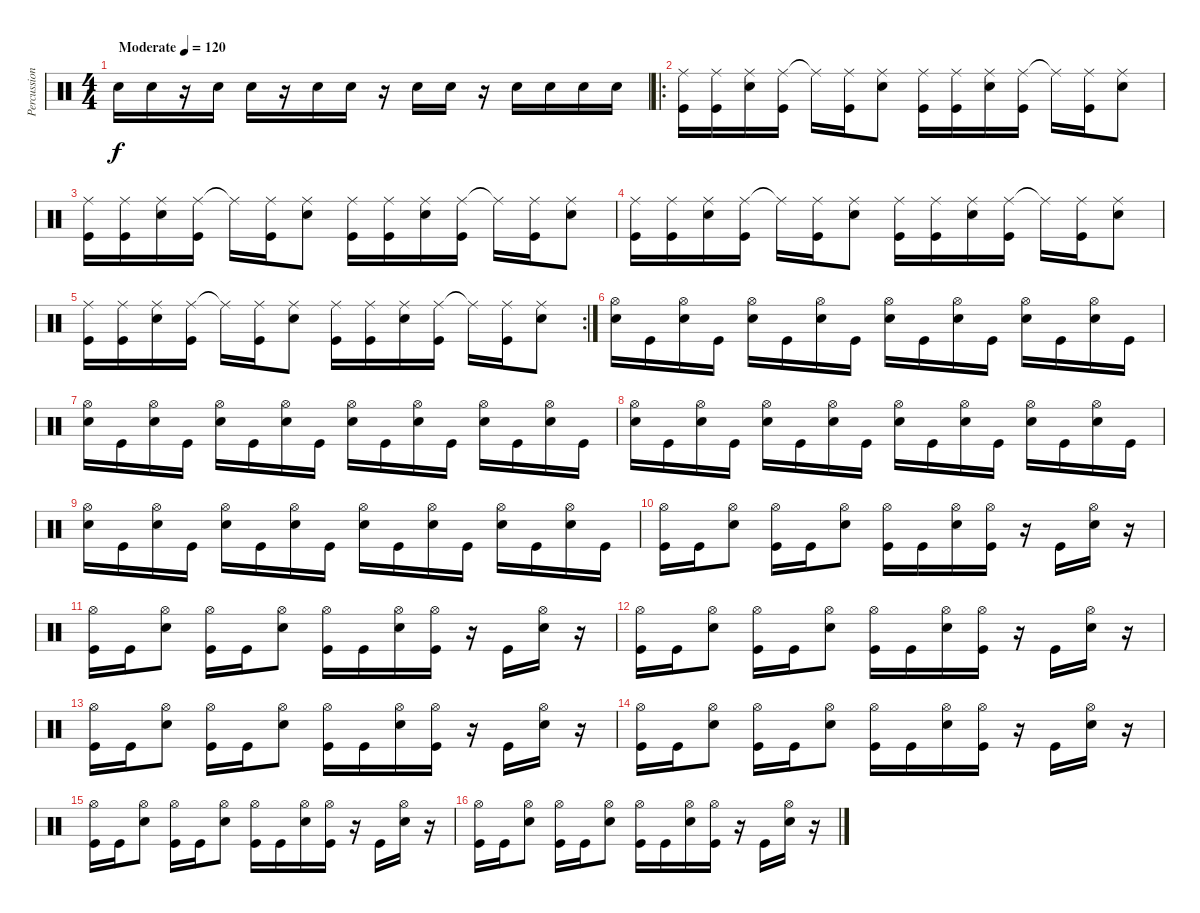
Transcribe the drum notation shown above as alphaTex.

\track ("Percussion" "Percussion") {instrument percussion}
\staff {score}
\articulation defaults
\ts (4 4)
\tempo (120 "Moderate")
\clef neutral
\ks c "Snare (hit) 2".16{dy f} "Snare (hit) 2".16
r.16 "Snare (hit) 2".16 "Snare (hit) 2".16 r.16 "Snare (hit) 2".16 "Snare (hit) 2".16 r.16 "Snare (hit) 2".16 "Snare (hit) 2".16 r.16 "Snare (hit) 2".16 "Snare (hit) 2".16 "Snare (hit) 2".16 "Snare (hit) 2".16 |
\ro
("Ride (middle)" "Kick (hit)").16 ("Ride (middle)" "Kick (hit)").16 ("Ride (middle)" "Snare (hit) 2").16 ("Ride (middle)" "Kick (hit)").16 "Ride (middle)"{t}.16 ("Ride (middle)" "Kick (hit)").16 ("Ride (middle)" "Snare (hit) 2").8 ("Ride (middle)" "Kick (hit)").16 ("Ride (middle)" "Kick (hit)").16 ("Ride (middle)" "Snare (hit) 2").16 ("Ride (middle)" "Kick (hit)").16 "Ride (middle)"{t}.16 ("Ride (middle)" "Kick (hit)").16 ("Ride (middle)" "Snare (hit) 2").8 |
("Ride (middle)" "Kick (hit)").16 ("Ride (middle)" "Kick (hit)").16 ("Ride (middle)" "Snare (hit) 2").16 ("Ride (middle)" "Kick (hit)").16 "Ride (middle)"{t}.16 ("Ride (middle)" "Kick (hit)").16 ("Ride (middle)" "Snare (hit) 2").8 ("Ride (middle)" "Kick (hit)").16 ("Ride (middle)" "Kick (hit)").16 ("Ride (middle)" "Snare (hit) 2").16 ("Ride (middle)" "Kick (hit)").16 "Ride (middle)"{t}.16 ("Ride (middle)" "Kick (hit)").16 ("Ride (middle)" "Snare (hit) 2").8 |
("Ride (middle)" "Kick (hit)").16 ("Ride (middle)" "Kick (hit)").16 ("Ride (middle)" "Snare (hit) 2").16 ("Ride (middle)" "Kick (hit)").16 "Ride (middle)"{t}.16 ("Ride (middle)" "Kick (hit)").16 ("Ride (middle)" "Snare (hit) 2").8 ("Ride (middle)" "Kick (hit)").16 ("Ride (middle)" "Kick (hit)").16 ("Ride (middle)" "Snare (hit) 2").16 ("Ride (middle)" "Kick (hit)").16 "Ride (middle)"{t}.16 ("Ride (middle)" "Kick (hit)").16 ("Ride (middle)" "Snare (hit) 2").8 |
\rc 2
("Ride (middle)" "Kick (hit)").16 ("Ride (middle)" "Kick (hit)").16 ("Ride (middle)" "Snare (hit) 2").16 ("Ride (middle)" "Kick (hit)").16 "Ride (middle)"{t}.16 ("Ride (middle)" "Kick (hit)").16 ("Ride (middle)" "Snare (hit) 2").8 ("Ride (middle)" "Kick (hit)").16 ("Ride (middle)" "Kick (hit)").16 ("Ride (middle)" "Snare (hit) 2").16 ("Ride (middle)" "Kick (hit)").16 "Ride (middle)"{t}.16 ("Ride (middle)" "Kick (hit)").16 ("Ride (middle)" "Snare (hit) 2").8 |
("Hi-Hat (open)" "Snare (hit) 2").16 "Kick (hit)".16 ("Hi-Hat (open)" "Snare (hit) 2").16 "Kick (hit)".16 ("Hi-Hat (open)" "Snare (hit) 2").16 "Kick (hit)".16 ("Hi-Hat (open)" "Snare (hit) 2").16 "Kick (hit)".16 ("Hi-Hat (open)" "Snare (hit) 2").16 "Kick (hit)".16 ("Hi-Hat (open)" "Snare (hit) 2").16 "Kick (hit)".16 ("Hi-Hat (open)" "Snare (hit) 2").16 "Kick (hit)".16 ("Hi-Hat (open)" "Snare (hit) 2").16 "Kick (hit)".16 |
("Hi-Hat (open)" "Snare (hit) 2").16 "Kick (hit)".16 ("Hi-Hat (open)" "Snare (hit) 2").16 "Kick (hit)".16 ("Hi-Hat (open)" "Snare (hit) 2").16 "Kick (hit)".16 ("Hi-Hat (open)" "Snare (hit) 2").16 "Kick (hit)".16 ("Hi-Hat (open)" "Snare (hit) 2").16 "Kick (hit)".16 ("Hi-Hat (open)" "Snare (hit) 2").16 "Kick (hit)".16 ("Hi-Hat (open)" "Snare (hit) 2").16 "Kick (hit)".16 ("Hi-Hat (open)" "Snare (hit) 2").16 "Kick (hit)".16 |
("Hi-Hat (open)" "Snare (hit) 2").16 "Kick (hit)".16 ("Hi-Hat (open)" "Snare (hit) 2").16 "Kick (hit)".16 ("Hi-Hat (open)" "Snare (hit) 2").16 "Kick (hit)".16 ("Hi-Hat (open)" "Snare (hit) 2").16 "Kick (hit)".16 ("Hi-Hat (open)" "Snare (hit) 2").16 "Kick (hit)".16 ("Hi-Hat (open)" "Snare (hit) 2").16 "Kick (hit)".16 ("Hi-Hat (open)" "Snare (hit) 2").16 "Kick (hit)".16 ("Hi-Hat (open)" "Snare (hit) 2").16 "Kick (hit)".16 |
("Hi-Hat (open)" "Snare (hit) 2").16 "Kick (hit)".16 ("Hi-Hat (open)" "Snare (hit) 2").16 "Kick (hit)".16 ("Hi-Hat (open)" "Snare (hit) 2").16 "Kick (hit)".16 ("Hi-Hat (open)" "Snare (hit) 2").16 "Kick (hit)".16 ("Hi-Hat (open)" "Snare (hit) 2").16 "Kick (hit)".16 ("Hi-Hat (open)" "Snare (hit) 2").16 "Kick (hit)".16 ("Hi-Hat (open)" "Snare (hit) 2").16 "Kick (hit)".16 ("Hi-Hat (open)" "Snare (hit) 2").16 "Kick (hit)".16 |
("Hi-Hat (open)" "Kick (hit)").16 "Kick (hit)".16 ("Hi-Hat (open)" "Snare (hit) 2").8 ("Hi-Hat (open)" "Kick (hit)").16 "Kick (hit)".16 ("Hi-Hat (open)" "Snare (hit) 2").8 ("Hi-Hat (open)" "Kick (hit)").16 "Kick (hit)".16 ("Hi-Hat (open)" "Snare (hit) 2").16 ("Hi-Hat (open)" "Kick (hit)").16 r.16 "Kick (hit)".16 ("Hi-Hat (open)" "Snare (hit) 2").16 r.16 |
("Hi-Hat (open)" "Kick (hit)").16 "Kick (hit)".16 ("Hi-Hat (open)" "Snare (hit) 2").8 ("Hi-Hat (open)" "Kick (hit)").16 "Kick (hit)".16 ("Hi-Hat (open)" "Snare (hit) 2").8 ("Hi-Hat (open)" "Kick (hit)").16 "Kick (hit)".16 ("Hi-Hat (open)" "Snare (hit) 2").16 ("Hi-Hat (open)" "Kick (hit)").16 r.16 "Kick (hit)".16 ("Hi-Hat (open)" "Snare (hit) 2").16 r.16 |
("Hi-Hat (open)" "Kick (hit)").16 "Kick (hit)".16 ("Hi-Hat (open)" "Snare (hit) 2").8 ("Hi-Hat (open)" "Kick (hit)").16 "Kick (hit)".16 ("Hi-Hat (open)" "Snare (hit) 2").8 ("Hi-Hat (open)" "Kick (hit)").16 "Kick (hit)".16 ("Hi-Hat (open)" "Snare (hit) 2").16 ("Hi-Hat (open)" "Kick (hit)").16 r.16 "Kick (hit)".16 ("Hi-Hat (open)" "Snare (hit) 2").16 r.16 |
("Hi-Hat (open)" "Kick (hit)").16 "Kick (hit)".16 ("Hi-Hat (open)" "Snare (hit) 2").8 ("Hi-Hat (open)" "Kick (hit)").16 "Kick (hit)".16 ("Hi-Hat (open)" "Snare (hit) 2").8 ("Hi-Hat (open)" "Kick (hit)").16 "Kick (hit)".16 ("Hi-Hat (open)" "Snare (hit) 2").16 ("Hi-Hat (open)" "Kick (hit)").16 r.16 "Kick (hit)".16 ("Hi-Hat (open)" "Snare (hit) 2").16 r.16 |
("Hi-Hat (open)" "Kick (hit)").16 "Kick (hit)".16 ("Hi-Hat (open)" "Snare (hit) 2").8 ("Hi-Hat (open)" "Kick (hit)").16 "Kick (hit)".16 ("Hi-Hat (open)" "Snare (hit) 2").8 ("Hi-Hat (open)" "Kick (hit)").16 "Kick (hit)".16 ("Hi-Hat (open)" "Snare (hit) 2").16 ("Hi-Hat (open)" "Kick (hit)").16 r.16 "Kick (hit)".16 ("Hi-Hat (open)" "Snare (hit) 2").16 r.16 |
("Hi-Hat (open)" "Kick (hit)").16 "Kick (hit)".16 ("Hi-Hat (open)" "Snare (hit) 2").8 ("Hi-Hat (open)" "Kick (hit)").16 "Kick (hit)".16 ("Hi-Hat (open)" "Snare (hit) 2").8 ("Hi-Hat (open)" "Kick (hit)").16 "Kick (hit)".16 ("Hi-Hat (open)" "Snare (hit) 2").16 ("Hi-Hat (open)" "Kick (hit)").16 r.16 "Kick (hit)".16 ("Hi-Hat (open)" "Snare (hit) 2").16 r.16 |
("Hi-Hat (open)" "Kick (hit)").16 "Kick (hit)".16 ("Hi-Hat (open)" "Snare (hit) 2").8 ("Hi-Hat (open)" "Kick (hit)").16 "Kick (hit)".16 ("Hi-Hat (open)" "Snare (hit) 2").8 ("Hi-Hat (open)" "Kick (hit)").16 "Kick (hit)".16 ("Hi-Hat (open)" "Snare (hit) 2").16 ("Hi-Hat (open)" "Kick (hit)").16 r.16 "Kick (hit)".16 ("Hi-Hat (open)" "Snare (hit) 2").16 r.16
